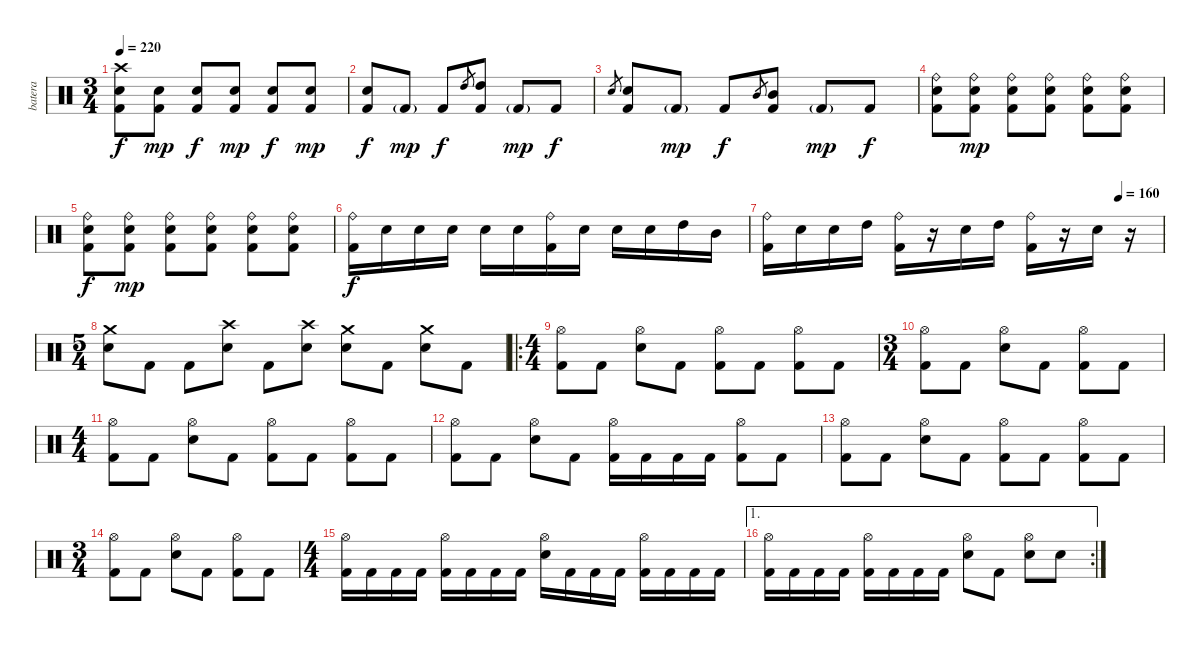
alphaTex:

\track ("batera" "batera") {instrument percussion}
\staff {score}
\articulation defaults
\ts (3 4)
\tempo 220
\clef neutral
\ks c
("Crash high (hit)" "Electric Snare (hit)" "Kick (hit) 2").8{dy f} ("Electric Snare (hit)" "Kick (hit) 2").8{dy mp} ("Electric Snare (hit)" "Kick (hit) 2").8{dy f} ("Electric Snare (hit)" "Kick (hit) 2").8{dy mp} ("Electric Snare (hit)" "Kick (hit) 2").8{dy f} ("Electric Snare (hit)" "Kick (hit) 2").8{dy mp} |
("Electric Snare (hit)" "Kick (hit) 2").8{dy f} "Kick (hit) 2"{g}.8{dy mp} "Kick (hit) 2".8{dy f} "High Tom (hit)".8{gr} ("High Tom (hit)" "Kick (hit) 2").8 "Kick (hit) 2"{g}.8{dy mp} "Kick (hit) 2".8{dy f} |
"Electric Snare (hit)".8{gr} ("Electric Snare (hit)" "Kick (hit) 2").8 "Kick (hit) 2"{g}.8{dy mp} "Kick (hit) 2".8{dy f} "Mid Tom (hit)".8{gr} ("Mid Tom (hit)" "Kick (hit) 2").8 "Kick (hit) 2"{g}.8{dy mp} "Kick (hit) 2".8{dy f} |
("Ride (bell)" "Electric Snare (hit)" "Kick (hit) 2").8 ("Ride (bell)" "Electric Snare (hit)" "Kick (hit) 2").8{dy mp} ("Ride (bell)" "Electric Snare (hit)" "Kick (hit) 2").8 ("Ride (bell)" "Electric Snare (hit)" "Kick (hit) 2").8 ("Ride (bell)" "Electric Snare (hit)" "Kick (hit) 2").8 ("Ride (bell)" "Electric Snare (hit)" "Kick (hit) 2").8 |
("Ride (bell)" "Electric Snare (hit)" "Kick (hit) 2").8{dy f} ("Ride (bell)" "Electric Snare (hit)" "Kick (hit) 2").8{dy mp} ("Ride (bell)" "Electric Snare (hit)" "Kick (hit) 2").8 ("Ride (bell)" "Electric Snare (hit)" "Kick (hit) 2").8 ("Ride (bell)" "Electric Snare (hit)" "Kick (hit) 2").8 ("Ride (bell)" "Electric Snare (hit)" "Kick (hit) 2").8 |
("Ride (bell)" "Kick (hit) 2").16{dy f} "Electric Snare (hit)".16 "Electric Snare (hit)".16 "Electric Snare (hit)".16 "Electric Snare (hit)".16 "Electric Snare (hit)".16 ("Ride (bell)" "Kick (hit) 2").16 "Electric Snare (hit)".16 "Electric Snare (hit)".16 "Electric Snare (hit)".16 "High Tom (hit)".16 "Mid Tom (hit)".16 |
\tempo (160 0.8888888888888888)
("Ride (bell)" "Kick (hit) 2").16 "Electric Snare (hit)".16 "Electric Snare (hit)".16 "High Tom (hit)".16 ("Ride (bell)" "Kick (hit) 2").16 r.16 "Electric Snare (hit)".16 "High Tom (hit)".16 ("Ride (bell)" "Kick (hit) 2").16 r.16 "Electric Snare (hit)".16 r.16 |
\ts (5 4)
("Crash medium (hit)" "Electric Snare (hit)").8 "Kick (hit) 2".8 "Kick (hit) 2".8 ("Crash high (hit)" "Electric Snare (hit)").8 "Kick (hit) 2".8 ("Crash high (hit)" "Electric Snare (hit)").8 ("Crash medium (hit)" "Electric Snare (hit)").8 "Kick (hit) 2".8 ("Crash medium (hit)" "Electric Snare (hit)").8 "Kick (hit) 2".8 |
\ro
\ts (4 4)
("Hi-Hat (open)" "Kick (hit) 2").8 "Kick (hit) 2".8 ("Hi-Hat (open)" "Electric Snare (hit)").8 "Kick (hit) 2".8 ("Hi-Hat (open)" "Kick (hit) 2").8 "Kick (hit) 2".8 ("Hi-Hat (open)" "Kick (hit) 2").8 "Kick (hit) 2".8 |
\ts (3 4)
("Hi-Hat (open)" "Kick (hit) 2").8 "Kick (hit) 2".8 ("Hi-Hat (open)" "Electric Snare (hit)").8 "Kick (hit) 2".8 ("Hi-Hat (open)" "Kick (hit) 2").8 "Kick (hit) 2".8 |
\ts (4 4)
("Hi-Hat (open)" "Kick (hit) 2").8 "Kick (hit) 2".8 ("Hi-Hat (open)" "Electric Snare (hit)").8 "Kick (hit) 2".8 ("Hi-Hat (open)" "Kick (hit) 2").8 "Kick (hit) 2".8 ("Hi-Hat (open)" "Kick (hit) 2").8 "Kick (hit) 2".8 |
("Hi-Hat (open)" "Kick (hit) 2").8 "Kick (hit) 2".8 ("Hi-Hat (open)" "Electric Snare (hit)").8 "Kick (hit) 2".8 ("Hi-Hat (open)" "Kick (hit) 2").16 "Kick (hit) 2".16 "Kick (hit) 2".16 "Kick (hit) 2".16 ("Hi-Hat (open)" "Kick (hit) 2").8 "Kick (hit) 2".8 |
("Hi-Hat (open)" "Kick (hit) 2").8 "Kick (hit) 2".8 ("Hi-Hat (open)" "Electric Snare (hit)").8 "Kick (hit) 2".8 ("Hi-Hat (open)" "Kick (hit) 2").8 "Kick (hit) 2".8 ("Hi-Hat (open)" "Kick (hit) 2").8 "Kick (hit) 2".8 |
\ts (3 4)
("Hi-Hat (open)" "Kick (hit) 2").8 "Kick (hit) 2".8 ("Hi-Hat (open)" "Electric Snare (hit)").8 "Kick (hit) 2".8 ("Hi-Hat (open)" "Kick (hit) 2").8 "Kick (hit) 2".8 |
\ts (4 4)
("Hi-Hat (open)" "Kick (hit) 2").16 "Kick (hit) 2".16 "Kick (hit) 2".16 "Kick (hit) 2".16 ("Hi-Hat (open)" "Kick (hit) 2").16 "Kick (hit) 2".16 "Kick (hit) 2".16 "Kick (hit) 2".16 ("Hi-Hat (open)" "Electric Snare (hit)").16 "Kick (hit) 2".16 "Kick (hit) 2".16 "Kick (hit) 2".16 ("Hi-Hat (open)" "Kick (hit) 2").16 "Kick (hit) 2".16 "Kick (hit) 2".16 "Kick (hit) 2".16 |
\ae 1
\rc 2
("Hi-Hat (open)" "Kick (hit) 2").16 "Kick (hit) 2".16 "Kick (hit) 2".16 "Kick (hit) 2".16 ("Hi-Hat (open)" "Kick (hit) 2").16 "Kick (hit) 2".16 "Kick (hit) 2".16 "Kick (hit) 2".16 ("Hi-Hat (open)" "Electric Snare (hit)").8 "Kick (hit) 2".8 ("Hi-Hat (open)" "Electric Snare (hit)").8 "Electric Snare (hit)".8
